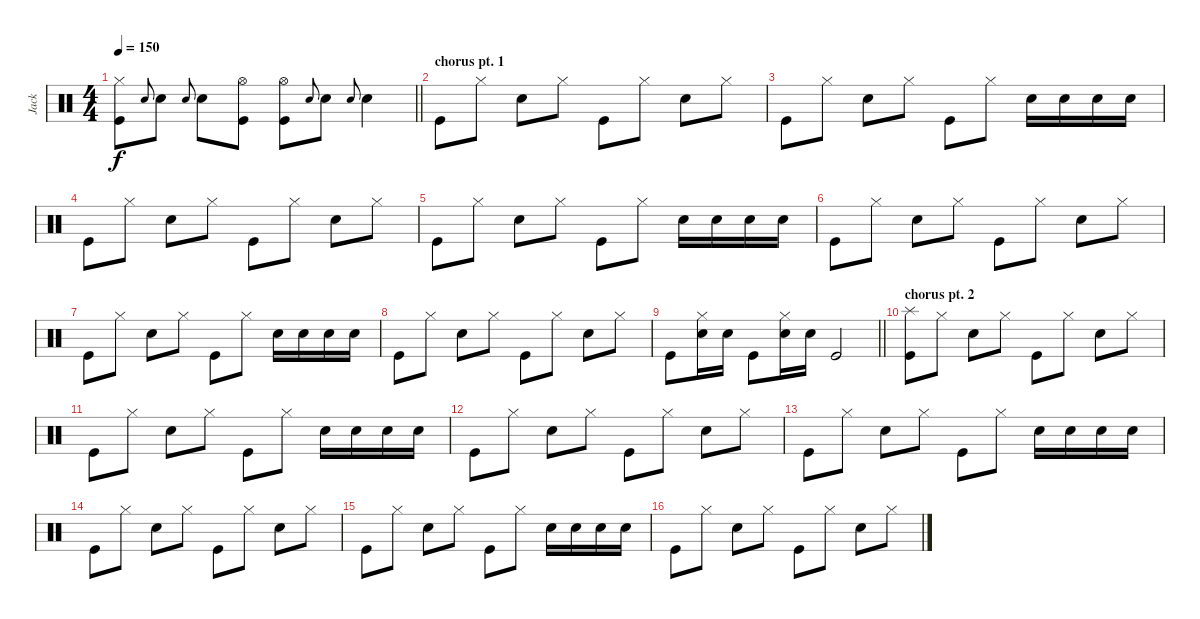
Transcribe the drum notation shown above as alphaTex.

\track ("Jack" "Jack") {instrument percussion}
\staff {score}
\articulation defaults
\ts (4 4)
\tempo 150
\clef neutral
\barLineRight lightlight
\ks c
("Hi-Hat (closed)" "Kick (hit)").8{dy f} "Electric Snare (hit)".8{gr onbeat} "Electric Snare (hit)".8 "Electric Snare (hit)".8{gr onbeat} "Electric Snare (hit)".8 ("Hi-Hat (open)" "Kick (hit)").8 ("Hi-Hat (open)" "Kick (hit)").8 "Electric Snare (hit)".8{gr onbeat} "Electric Snare (hit)".8 "Electric Snare (hit)".8{gr onbeat} "Electric Snare (hit)".4 |
\section ("" "chorus pt. 1")
"Kick (hit)".8 "Hi-Hat (closed)".8 "Electric Snare (hit)".8 "Hi-Hat (closed)".8 "Kick (hit)".8 "Hi-Hat (closed)".8 "Electric Snare (hit)".8 "Hi-Hat (closed)".8 |
"Kick (hit)".8 "Hi-Hat (closed)".8 "Electric Snare (hit)".8 "Hi-Hat (closed)".8 "Kick (hit)".8 "Hi-Hat (closed)".8 "Electric Snare (hit)".16 "Electric Snare (hit)".16 "Electric Snare (hit)".16 "Electric Snare (hit)".16 |
"Kick (hit)".8 "Hi-Hat (closed)".8 "Electric Snare (hit)".8 "Hi-Hat (closed)".8 "Kick (hit)".8 "Hi-Hat (closed)".8 "Electric Snare (hit)".8 "Hi-Hat (closed)".8 |
"Kick (hit)".8 "Hi-Hat (closed)".8 "Electric Snare (hit)".8 "Hi-Hat (closed)".8 "Kick (hit)".8 "Hi-Hat (closed)".8 "Electric Snare (hit)".16 "Electric Snare (hit)".16 "Electric Snare (hit)".16 "Electric Snare (hit)".16 |
"Kick (hit)".8 "Hi-Hat (closed)".8 "Electric Snare (hit)".8 "Hi-Hat (closed)".8 "Kick (hit)".8 "Hi-Hat (closed)".8 "Electric Snare (hit)".8 "Hi-Hat (closed)".8 |
"Kick (hit)".8 "Hi-Hat (closed)".8 "Electric Snare (hit)".8 "Hi-Hat (closed)".8 "Kick (hit)".8 "Hi-Hat (closed)".8 "Electric Snare (hit)".16 "Electric Snare (hit)".16 "Electric Snare (hit)".16 "Electric Snare (hit)".16 |
"Kick (hit)".8 "Hi-Hat (closed)".8 "Electric Snare (hit)".8 "Hi-Hat (closed)".8 "Kick (hit)".8 "Hi-Hat (closed)".8 "Electric Snare (hit)".8 "Hi-Hat (closed)".8 |
\barLineRight lightlight "Kick (hit)".8
("Hi-Hat (closed)" "Electric Snare (hit)").16 "Electric Snare (hit)".16 "Kick (hit)".8 ("Hi-Hat (closed)" "Electric Snare (hit)").16 "Electric Snare (hit)".16 "Kick (hit)".2 |
\section ("" "chorus pt. 2")
("Splash (hit)" "Kick (hit)").8 "Hi-Hat (closed)".8 "Electric Snare (hit)".8 "Hi-Hat (closed)".8 "Kick (hit)".8 "Hi-Hat (closed)".8 "Electric Snare (hit)".8 "Hi-Hat (closed)".8 |
"Kick (hit)".8 "Hi-Hat (closed)".8 "Electric Snare (hit)".8 "Hi-Hat (closed)".8 "Kick (hit)".8 "Hi-Hat (closed)".8 "Electric Snare (hit)".16 "Electric Snare (hit)".16 "Electric Snare (hit)".16 "Electric Snare (hit)".16 |
"Kick (hit)".8 "Hi-Hat (closed)".8 "Electric Snare (hit)".8 "Hi-Hat (closed)".8 "Kick (hit)".8 "Hi-Hat (closed)".8 "Electric Snare (hit)".8 "Hi-Hat (closed)".8 |
"Kick (hit)".8 "Hi-Hat (closed)".8 "Electric Snare (hit)".8 "Hi-Hat (closed)".8 "Kick (hit)".8 "Hi-Hat (closed)".8 "Electric Snare (hit)".16 "Electric Snare (hit)".16 "Electric Snare (hit)".16 "Electric Snare (hit)".16 |
"Kick (hit)".8 "Hi-Hat (closed)".8 "Electric Snare (hit)".8 "Hi-Hat (closed)".8 "Kick (hit)".8 "Hi-Hat (closed)".8 "Electric Snare (hit)".8 "Hi-Hat (closed)".8 |
"Kick (hit)".8 "Hi-Hat (closed)".8 "Electric Snare (hit)".8 "Hi-Hat (closed)".8 "Kick (hit)".8 "Hi-Hat (closed)".8 "Electric Snare (hit)".16 "Electric Snare (hit)".16 "Electric Snare (hit)".16 "Electric Snare (hit)".16 |
"Kick (hit)".8 "Hi-Hat (closed)".8 "Electric Snare (hit)".8 "Hi-Hat (closed)".8 "Kick (hit)".8 "Hi-Hat (closed)".8 "Electric Snare (hit)".8 "Hi-Hat (closed)".8
